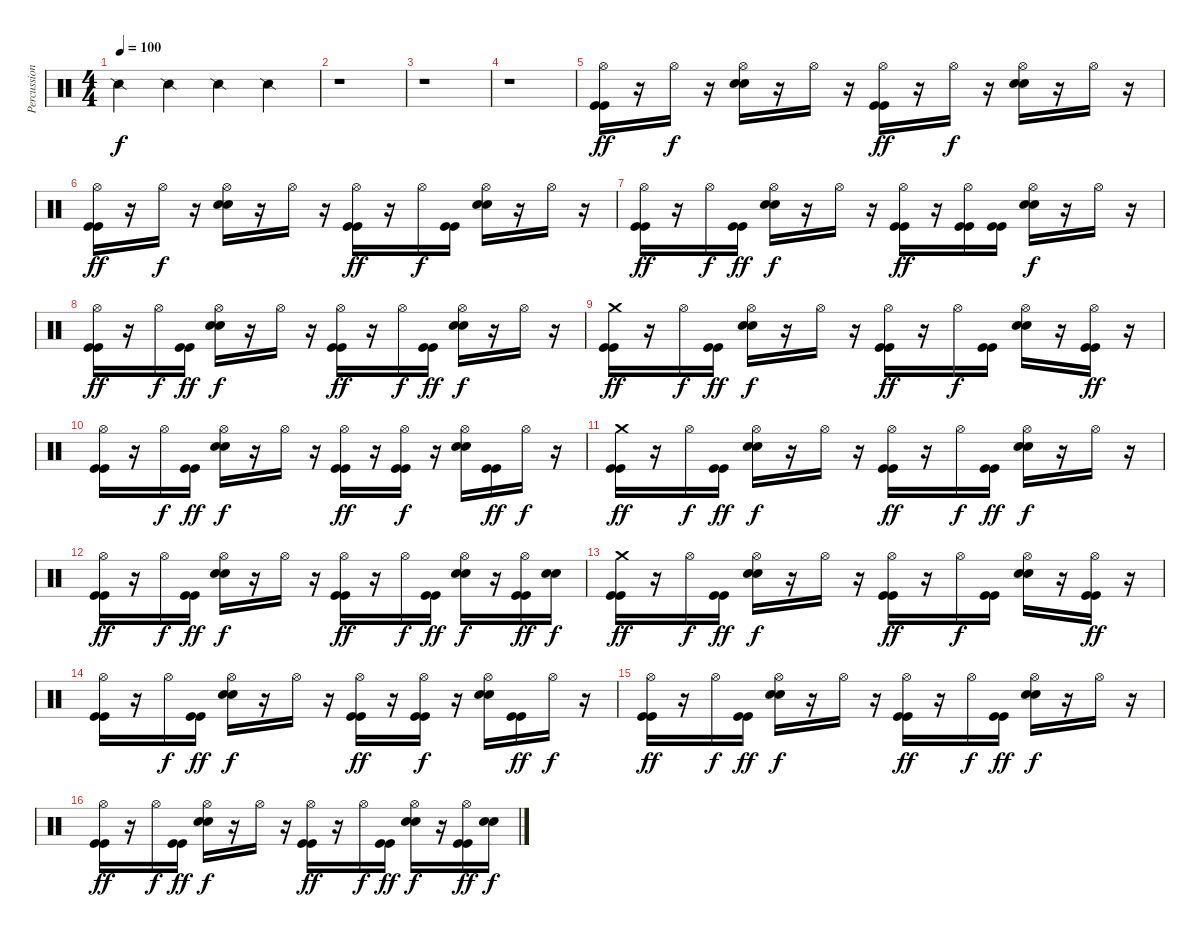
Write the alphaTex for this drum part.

\track ("Percussions" "Percussion") {instrument percussion}
\staff
\articulation defaults
\ts (4 4)
\tempo 100
\clef neutral
\ks c "Snare (side stick) 2".4{dy f} "Snare (side stick) 2".4 "Snare (side stick) 2".4 "Snare (side stick) 2".4
|
r.1 |
r.1 |
r.1 |
("Hi-Hat (open)" "Kick (hit)" "Kick (hit)").16{dy ff} r.16 "Hi-Hat (open)".16{dy f} r.16 ("Hi-Hat (open)" "Electric Snare (hit)" "Electric Snare (hit)").16 r.16 "Hi-Hat (open)".16 r.16 ("Hi-Hat (open)" "Kick (hit)" "Kick (hit)").16{dy ff} r.16 "Hi-Hat (open)".16{dy f} r.16 ("Hi-Hat (open)" "Electric Snare (hit)" "Electric Snare (hit)").16 r.16 "Hi-Hat (open)".16 r.16 |
("Hi-Hat (open)" "Kick (hit)" "Kick (hit)").16{dy ff} r.16 "Hi-Hat (open)".16{dy f} r.16 ("Hi-Hat (open)" "Electric Snare (hit)" "Electric Snare (hit)").16 r.16 "Hi-Hat (open)".16 r.16 ("Hi-Hat (open)" "Kick (hit)" "Kick (hit)").16{dy ff} r.16 "Hi-Hat (open)".16{dy f} ("Kick (hit)" "Kick (hit)").16 ("Hi-Hat (open)" "Electric Snare (hit)" "Electric Snare (hit)").16 r.16 "Hi-Hat (open)".16 r.16 |
("Hi-Hat (open)" "Kick (hit)" "Kick (hit)").16{dy ff} r.16 "Hi-Hat (open)".16{dy f} ("Kick (hit)" "Kick (hit)").16{dy ff} ("Hi-Hat (open)" "Electric Snare (hit)" "Electric Snare (hit)").16{dy f} r.16 "Hi-Hat (open)".16 r.16 ("Hi-Hat (open)" "Kick (hit)" "Kick (hit)").16{dy ff} r.16 ("Hi-Hat (open)" "Kick (hit)" "Kick (hit)").16 ("Kick (hit)" "Kick (hit)").16 ("Hi-Hat (open)" "Electric Snare (hit)" "Electric Snare (hit)").16{dy f} r.16 "Hi-Hat (open)".16 r.16 |
("Hi-Hat (open)" "Kick (hit)" "Kick (hit)").16{dy ff} r.16 "Hi-Hat (open)".16{dy f} ("Kick (hit)" "Kick (hit)").16{dy ff} ("Hi-Hat (open)" "Electric Snare (hit)" "Electric Snare (hit)").16{dy f} r.16 "Hi-Hat (open)".16 r.16 ("Hi-Hat (open)" "Kick (hit)" "Kick (hit)").16{dy ff} r.16 "Hi-Hat (open)".16{dy f} ("Kick (hit)" "Kick (hit)").16{dy ff} ("Hi-Hat (open)" "Electric Snare (hit)" "Electric Snare (hit)").16{dy f} r.16 "Hi-Hat (open)".16 r.16 |
("Crash medium (hit)" "Kick (hit)" "Kick (hit)").16{dy ff} r.16 "Hi-Hat (open)".16{dy f} ("Kick (hit)" "Kick (hit)").16{dy ff} ("Hi-Hat (open)" "Electric Snare (hit)" "Electric Snare (hit)").16{dy f} r.16 "Hi-Hat (open)".16 r.16 ("Hi-Hat (open)" "Kick (hit)" "Kick (hit)").16{dy ff} r.16 "Hi-Hat (open)".16{dy f} ("Kick (hit)" "Kick (hit)").16 ("Hi-Hat (open)" "Electric Snare (hit)" "Electric Snare (hit)").16 r.16 ("Hi-Hat (open)" "Kick (hit)" "Kick (hit)").16{dy ff} r.16 |
("Hi-Hat (open)" "Kick (hit)" "Kick (hit)").16 r.16 "Hi-Hat (open)".16{dy f} ("Kick (hit)" "Kick (hit)").16{dy ff} ("Hi-Hat (open)" "Electric Snare (hit)" "Electric Snare (hit)").16{dy f} r.16 "Hi-Hat (open)".16 r.16 ("Hi-Hat (open)" "Kick (hit)" "Kick (hit)").16{dy ff} r.16 ("Hi-Hat (open)" "Kick (hit)" "Kick (hit)").16{dy f} r.16 ("Hi-Hat (open)" "Electric Snare (hit)" "Electric Snare (hit)").16 ("Kick (hit)" "Kick (hit)").16{dy ff} "Hi-Hat (open)".16{dy f} r.16 |
("Crash medium (hit)" "Kick (hit)" "Kick (hit)").16{dy ff} r.16 "Hi-Hat (open)".16{dy f} ("Kick (hit)" "Kick (hit)").16{dy ff} ("Hi-Hat (open)" "Electric Snare (hit)" "Electric Snare (hit)").16{dy f} r.16 "Hi-Hat (open)".16 r.16 ("Hi-Hat (open)" "Kick (hit)" "Kick (hit)").16{dy ff} r.16 "Hi-Hat (open)".16{dy f} ("Kick (hit)" "Kick (hit)").16{dy ff} ("Hi-Hat (open)" "Electric Snare (hit)" "Electric Snare (hit)").16{dy f} r.16 "Hi-Hat (open)".16 r.16 |
("Hi-Hat (open)" "Kick (hit)" "Kick (hit)").16{dy ff} r.16 "Hi-Hat (open)".16{dy f} ("Kick (hit)" "Kick (hit)").16{dy ff} ("Hi-Hat (open)" "Electric Snare (hit)" "Electric Snare (hit)").16{dy f} r.16 "Hi-Hat (open)".16 r.16 ("Hi-Hat (open)" "Kick (hit)" "Kick (hit)").16{dy ff} r.16 "Hi-Hat (open)".16{dy f} ("Kick (hit)" "Kick (hit)").16{dy ff} ("Hi-Hat (open)" "Electric Snare (hit)" "Electric Snare (hit)").16{dy f} r.16 ("Hi-Hat (open)" "Kick (hit)" "Kick (hit)").16{dy ff} ("Electric Snare (hit)" "Electric Snare (hit)").16{dy f} |
("Crash medium (hit)" "Kick (hit)" "Kick (hit)").16{dy ff} r.16 "Hi-Hat (open)".16{dy f} ("Kick (hit)" "Kick (hit)").16{dy ff} ("Hi-Hat (open)" "Electric Snare (hit)" "Electric Snare (hit)").16{dy f} r.16 "Hi-Hat (open)".16 r.16 ("Hi-Hat (open)" "Kick (hit)" "Kick (hit)").16{dy ff} r.16 "Hi-Hat (open)".16{dy f} ("Kick (hit)" "Kick (hit)").16 ("Hi-Hat (open)" "Electric Snare (hit)" "Electric Snare (hit)").16 r.16 ("Hi-Hat (open)" "Kick (hit)" "Kick (hit)").16{dy ff} r.16 |
("Hi-Hat (open)" "Kick (hit)" "Kick (hit)").16 r.16 "Hi-Hat (open)".16{dy f} ("Kick (hit)" "Kick (hit)").16{dy ff} ("Hi-Hat (open)" "Electric Snare (hit)" "Electric Snare (hit)").16{dy f} r.16 "Hi-Hat (open)".16 r.16 ("Hi-Hat (open)" "Kick (hit)" "Kick (hit)").16{dy ff} r.16 ("Hi-Hat (open)" "Kick (hit)" "Kick (hit)").16{dy f} r.16 ("Hi-Hat (open)" "Electric Snare (hit)" "Electric Snare (hit)").16 ("Kick (hit)" "Kick (hit)").16{dy ff} "Hi-Hat (open)".16{dy f} r.16 |
("Hi-Hat (open)" "Kick (hit)" "Kick (hit)").16{dy ff} r.16 "Hi-Hat (open)".16{dy f} ("Kick (hit)" "Kick (hit)").16{dy ff} ("Hi-Hat (open)" "Electric Snare (hit)" "Electric Snare (hit)").16{dy f} r.16 "Hi-Hat (open)".16 r.16 ("Hi-Hat (open)" "Kick (hit)" "Kick (hit)").16{dy ff} r.16 "Hi-Hat (open)".16{dy f} ("Kick (hit)" "Kick (hit)").16{dy ff} ("Hi-Hat (open)" "Electric Snare (hit)" "Electric Snare (hit)").16{dy f} r.16 "Hi-Hat (open)".16 r.16 |
("Hi-Hat (open)" "Kick (hit)" "Kick (hit)").16{dy ff} r.16 "Hi-Hat (open)".16{dy f} ("Kick (hit)" "Kick (hit)").16{dy ff} ("Hi-Hat (open)" "Electric Snare (hit)" "Electric Snare (hit)").16{dy f} r.16 "Hi-Hat (open)".16 r.16 ("Hi-Hat (open)" "Kick (hit)" "Kick (hit)").16{dy ff} r.16 "Hi-Hat (open)".16{dy f} ("Kick (hit)" "Kick (hit)").16{dy ff} ("Hi-Hat (open)" "Electric Snare (hit)" "Electric Snare (hit)").16{dy f} r.16 ("Hi-Hat (open)" "Kick (hit)" "Kick (hit)").16{dy ff} ("Electric Snare (hit)" "Electric Snare (hit)").16{dy f}
